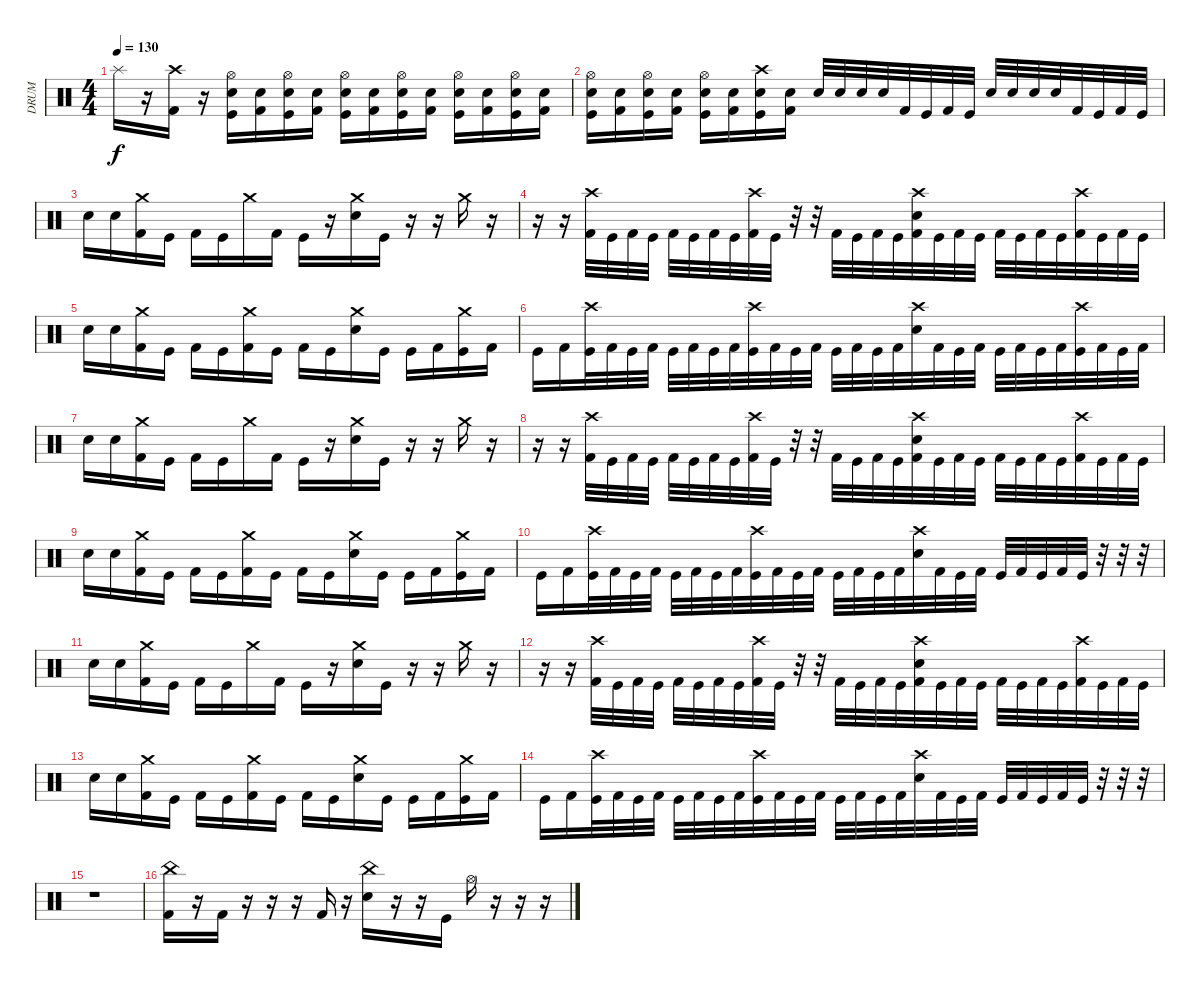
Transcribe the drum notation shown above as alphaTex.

\track ("DRUM" "DRUM") {instrument percussion}
\staff {score}
\articulation defaults
\ts (4 4)
\tempo 130
\clef neutral
\ks c "Splash (hit)".16{dy f}
r.16 ("Crash high (hit)" "Kick (hit) 2").16 r.16 ("Hi-Hat (open)" "Electric Snare (hit)" "Kick (hit)").16 ("Electric Snare (hit)" "Kick (hit) 2").16 ("Hi-Hat (open)" "Electric Snare (hit)" "Kick (hit)").16 ("Electric Snare (hit)" "Kick (hit) 2").16 ("Hi-Hat (open)" "Electric Snare (hit)" "Kick (hit)").16 ("Electric Snare (hit)" "Kick (hit) 2").16 ("Hi-Hat (open)" "Electric Snare (hit)" "Kick (hit)").16 ("Electric Snare (hit)" "Kick (hit) 2").16 ("Hi-Hat (open)" "Electric Snare (hit)" "Kick (hit)").16 ("Electric Snare (hit)" "Kick (hit) 2").16 ("Hi-Hat (open)" "Electric Snare (hit)" "Kick (hit)").16 ("Electric Snare (hit)" "Kick (hit) 2").16 |
("Hi-Hat (open)" "Electric Snare (hit)" "Kick (hit)").16 ("Electric Snare (hit)" "Kick (hit) 2").16 ("Hi-Hat (open)" "Electric Snare (hit)" "Kick (hit)").16 ("Electric Snare (hit)" "Kick (hit) 2").16 ("Hi-Hat (open)" "Electric Snare (hit)" "Kick (hit)").16 ("Electric Snare (hit)" "Kick (hit) 2").16 ("Crash high (hit)" "Electric Snare (hit)" "Kick (hit)").16 ("Electric Snare (hit)" "Kick (hit) 2").16 "Electric Snare (hit)".32 "Electric Snare (hit)".32 "Electric Snare (hit)".32 "Electric Snare (hit)".32 "Kick (hit) 2".32 "Kick (hit)".32 "Kick (hit) 2".32 "Kick (hit)".32 "Electric Snare (hit)".32 "Electric Snare (hit)".32 "Electric Snare (hit)".32 "Electric Snare (hit)".32 "Kick (hit) 2".32 "Kick (hit)".32 "Kick (hit) 2".32 "Kick (hit)".32 |
"Electric Snare (hit)".16 "Electric Snare (hit)".16 ("Crash medium (hit)" "Kick (hit) 2").16 "Kick (hit)".16 "Kick (hit) 2".16 "Kick (hit)".16 "Crash medium (hit)".16 "Kick (hit) 2".16 "Kick (hit)".16 r.16 ("Crash medium (hit)" "Electric Snare (hit)").16 "Kick (hit)".16 r.16 r.16 "Crash medium (hit)".16 r.16 |
r.16 r.16 ("Crash high (hit)" "Kick (hit) 2").32 "Kick (hit)".32 "Kick (hit) 2".32 "Kick (hit)".32 "Kick (hit) 2".32 "Kick (hit)".32 "Kick (hit) 2".32 "Kick (hit)".32 ("Crash high (hit)" "Kick (hit) 2").32 "Kick (hit)".32 r.32 r.32 "Kick (hit) 2".32 "Kick (hit)".32 "Kick (hit) 2".32 "Kick (hit)".32 ("Crash high (hit)" "Electric Snare (hit)" "Kick (hit) 2").32 "Kick (hit)".32 "Kick (hit) 2".32 "Kick (hit)".32 "Kick (hit) 2".32 "Kick (hit)".32 "Kick (hit) 2".32 "Kick (hit)".32 ("Crash high (hit)" "Kick (hit) 2").32 "Kick (hit)".32 "Kick (hit) 2".32 "Kick (hit)".32 |
"Electric Snare (hit)".16 "Electric Snare (hit)".16 ("Crash medium (hit)" "Kick (hit) 2").16 "Kick (hit)".16 "Kick (hit) 2".16 "Kick (hit)".16 ("Crash medium (hit)" "Kick (hit) 2").16 "Kick (hit)".16 "Kick (hit) 2".16 "Kick (hit)".16 ("Crash medium (hit)" "Electric Snare (hit)").16 "Kick (hit)".16 "Kick (hit)".16 "Kick (hit) 2".16 ("Crash medium (hit)" "Kick (hit)").16 "Kick (hit) 2".16 |
"Kick (hit)".16 "Kick (hit) 2".16 ("Crash high (hit)" "Kick (hit)").32 "Kick (hit) 2".32 "Kick (hit)".32 "Kick (hit) 2".32 "Kick (hit)".32 "Kick (hit) 2".32 "Kick (hit)".32 "Kick (hit) 2".32 ("Crash high (hit)" "Kick (hit)").32 "Kick (hit) 2".32 "Kick (hit)".32 "Kick (hit) 2".32 "Kick (hit)".32 "Kick (hit) 2".32 "Kick (hit)".32 "Kick (hit) 2".32 ("Crash high (hit)" "Electric Snare (hit)").32 "Kick (hit) 2".32 "Kick (hit)".32 "Kick (hit) 2".32 "Kick (hit)".32 "Kick (hit) 2".32 "Kick (hit)".32 "Kick (hit) 2".32 ("Crash high (hit)" "Kick (hit)").32 "Kick (hit) 2".32 "Kick (hit)".32 "Kick (hit) 2".32 |
"Electric Snare (hit)".16 "Electric Snare (hit)".16 ("Crash medium (hit)" "Kick (hit) 2").16 "Kick (hit)".16 "Kick (hit) 2".16 "Kick (hit)".16 "Crash medium (hit)".16 "Kick (hit) 2".16 "Kick (hit)".16 r.16 ("Crash medium (hit)" "Electric Snare (hit)").16 "Kick (hit)".16 r.16 r.16 "Crash medium (hit)".16 r.16 |
r.16 r.16 ("Crash high (hit)" "Kick (hit) 2").32 "Kick (hit)".32 "Kick (hit) 2".32 "Kick (hit)".32 "Kick (hit) 2".32 "Kick (hit)".32 "Kick (hit) 2".32 "Kick (hit)".32 ("Crash high (hit)" "Kick (hit) 2").32 "Kick (hit)".32 r.32 r.32 "Kick (hit) 2".32 "Kick (hit)".32 "Kick (hit) 2".32 "Kick (hit)".32 ("Crash high (hit)" "Electric Snare (hit)" "Kick (hit) 2").32 "Kick (hit)".32 "Kick (hit) 2".32 "Kick (hit)".32 "Kick (hit) 2".32 "Kick (hit)".32 "Kick (hit) 2".32 "Kick (hit)".32 ("Crash high (hit)" "Kick (hit) 2").32 "Kick (hit)".32 "Kick (hit) 2".32 "Kick (hit)".32 |
"Electric Snare (hit)".16 "Electric Snare (hit)".16 ("Crash medium (hit)" "Kick (hit) 2").16 "Kick (hit)".16 "Kick (hit) 2".16 "Kick (hit)".16 ("Crash medium (hit)" "Kick (hit) 2").16 "Kick (hit)".16 "Kick (hit) 2".16 "Kick (hit)".16 ("Crash medium (hit)" "Electric Snare (hit)").16 "Kick (hit)".16 "Kick (hit)".16 "Kick (hit) 2".16 ("Crash medium (hit)" "Kick (hit)").16 "Kick (hit) 2".16 |
"Kick (hit)".16 "Kick (hit) 2".16 ("Crash high (hit)" "Kick (hit)").32 "Kick (hit) 2".32 "Kick (hit)".32 "Kick (hit) 2".32 "Kick (hit)".32 "Kick (hit) 2".32 "Kick (hit)".32 "Kick (hit) 2".32 ("Crash high (hit)" "Kick (hit)").32 "Kick (hit) 2".32 "Kick (hit)".32 "Kick (hit) 2".32 "Kick (hit)".32 "Kick (hit) 2".32 "Kick (hit)".32 "Kick (hit) 2".32 ("Crash high (hit)" "Electric Snare (hit)").32 "Kick (hit) 2".32 "Kick (hit)".32 "Kick (hit) 2".32 "Kick (hit)".32 "Kick (hit) 2".32 "Kick (hit)".32 "Kick (hit) 2".32 "Kick (hit)".32 r.32 r.32 r.32 |
"Electric Snare (hit)".16 "Electric Snare (hit)".16 ("Crash medium (hit)" "Kick (hit) 2").16 "Kick (hit)".16 "Kick (hit) 2".16 "Kick (hit)".16 "Crash medium (hit)".16 "Kick (hit) 2".16 "Kick (hit)".16 r.16 ("Crash medium (hit)" "Electric Snare (hit)").16 "Kick (hit)".16 r.16 r.16 "Crash medium (hit)".16 r.16 |
r.16 r.16 ("Crash high (hit)" "Kick (hit) 2").32 "Kick (hit)".32 "Kick (hit) 2".32 "Kick (hit)".32 "Kick (hit) 2".32 "Kick (hit)".32 "Kick (hit) 2".32 "Kick (hit)".32 ("Crash high (hit)" "Kick (hit) 2").32 "Kick (hit)".32 r.32 r.32 "Kick (hit) 2".32 "Kick (hit)".32 "Kick (hit) 2".32 "Kick (hit)".32 ("Crash high (hit)" "Electric Snare (hit)" "Kick (hit) 2").32 "Kick (hit)".32 "Kick (hit) 2".32 "Kick (hit)".32 "Kick (hit) 2".32 "Kick (hit)".32 "Kick (hit) 2".32 "Kick (hit)".32 ("Crash high (hit)" "Kick (hit) 2").32 "Kick (hit)".32 "Kick (hit) 2".32 "Kick (hit)".32 |
"Electric Snare (hit)".16 "Electric Snare (hit)".16 ("Crash medium (hit)" "Kick (hit) 2").16 "Kick (hit)".16 "Kick (hit) 2".16 "Kick (hit)".16 ("Crash medium (hit)" "Kick (hit) 2").16 "Kick (hit)".16 "Kick (hit) 2".16 "Kick (hit)".16 ("Crash medium (hit)" "Electric Snare (hit)").16 "Kick (hit)".16 "Kick (hit)".16 "Kick (hit) 2".16 ("Crash medium (hit)" "Kick (hit)").16 "Kick (hit) 2".16 |
"Kick (hit)".16 "Kick (hit) 2".16 ("Crash high (hit)" "Kick (hit)").32 "Kick (hit) 2".32 "Kick (hit)".32 "Kick (hit) 2".32 "Kick (hit)".32 "Kick (hit) 2".32 "Kick (hit)".32 "Kick (hit) 2".32 ("Crash high (hit)" "Kick (hit)").32 "Kick (hit) 2".32 "Kick (hit)".32 "Kick (hit) 2".32 "Kick (hit)".32 "Kick (hit) 2".32 "Kick (hit)".32 "Kick (hit) 2".32 ("Crash high (hit)" "Electric Snare (hit)").32 "Kick (hit) 2".32 "Kick (hit)".32 "Kick (hit) 2".32 "Kick (hit)".32 "Kick (hit) 2".32 "Kick (hit)".32 "Kick (hit) 2".32 "Kick (hit)".32 r.32 r.32 r.32 |
r.1 |
("China (hit)" "Kick (hit) 2").16 r.16 "Kick (hit) 2".16 r.16 r.16 r.16 "Kick (hit) 2".16 r.16 ("China (hit)" "Electric Snare (hit)").16 r.16 r.16 "Kick (hit)".16 "Hi-Hat (open)".16 r.16 r.16 r.16
